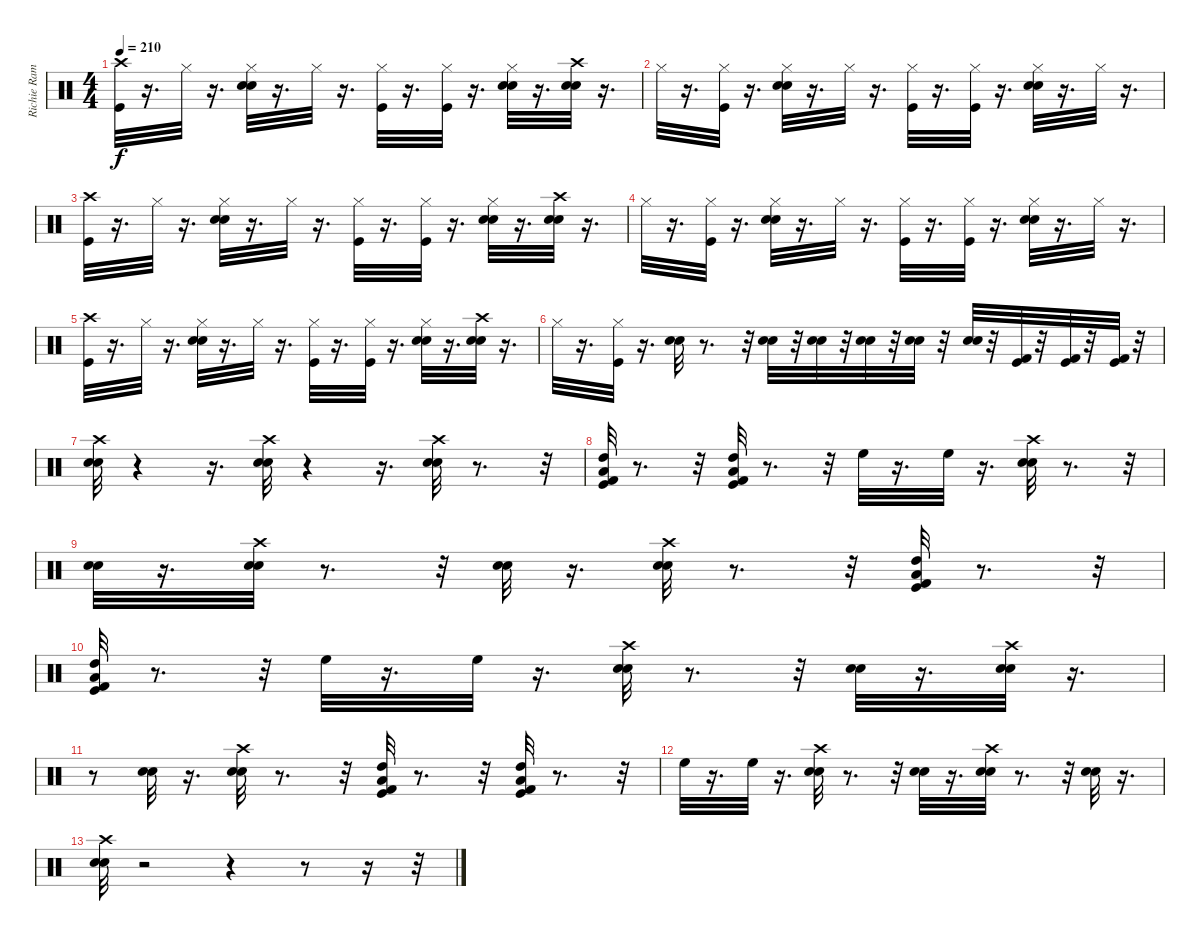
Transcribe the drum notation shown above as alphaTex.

\track ("Richie Ramone" "Richie Ram") {instrument percussion}
\staff {score}
\articulation defaults
\ts (4 4)
\tempo 210
\clef neutral
\ks c
("Crash high (hit)" "Kick (hit)").32{dy f} r.16{d} "Hi-Hat (closed)".32 r.16{d} ("Hand Clap (hit)" "Hi-Hat (closed)" "Electric Snare (hit)").32 r.16{d} "Hi-Hat (closed)".32 r.16{d} ("Hi-Hat (closed)" "Kick (hit)").32 r.16{d} ("Hi-Hat (closed)" "Kick (hit)").32 r.16{d} ("Hand Clap (hit)" "Hi-Hat (closed)" "Electric Snare (hit)").32 r.16{d} ("Hand Clap (hit)" "Crash high (hit)" "Electric Snare (hit)").32 r.16{d} |
"Hi-Hat (closed)".32 r.16{d} ("Hi-Hat (closed)" "Kick (hit)").32 r.16{d} ("Hand Clap (hit)" "Hi-Hat (closed)" "Electric Snare (hit)").32 r.16{d} "Hi-Hat (closed)".32 r.16{d} ("Hi-Hat (closed)" "Kick (hit)").32 r.16{d} ("Hi-Hat (closed)" "Kick (hit)").32 r.16{d} ("Hand Clap (hit)" "Hi-Hat (closed)" "Electric Snare (hit)").32 r.16{d} "Hi-Hat (closed)".32 r.16{d} |
("Crash high (hit)" "Kick (hit)").32 r.16{d} "Hi-Hat (closed)".32 r.16{d} ("Hand Clap (hit)" "Hi-Hat (closed)" "Electric Snare (hit)").32 r.16{d} "Hi-Hat (closed)".32 r.16{d} ("Hi-Hat (closed)" "Kick (hit)").32 r.16{d} ("Hi-Hat (closed)" "Kick (hit)").32 r.16{d} ("Hand Clap (hit)" "Hi-Hat (closed)" "Electric Snare (hit)").32 r.16{d} ("Hand Clap (hit)" "Crash high (hit)" "Electric Snare (hit)").32 r.16{d} |
"Hi-Hat (closed)".32 r.16{d} ("Hi-Hat (closed)" "Kick (hit)").32 r.16{d} ("Hand Clap (hit)" "Hi-Hat (closed)" "Electric Snare (hit)").32 r.16{d} "Hi-Hat (closed)".32 r.16{d} ("Hi-Hat (closed)" "Kick (hit)").32 r.16{d} ("Hi-Hat (closed)" "Kick (hit)").32 r.16{d} ("Hand Clap (hit)" "Hi-Hat (closed)" "Electric Snare (hit)").32 r.16{d} "Hi-Hat (closed)".32 r.16{d} |
("Crash high (hit)" "Kick (hit)").32 r.16{d} "Hi-Hat (closed)".32 r.16{d} ("Hand Clap (hit)" "Hi-Hat (closed)" "Electric Snare (hit)").32 r.16{d} "Hi-Hat (closed)".32 r.16{d} ("Hi-Hat (closed)" "Kick (hit)").32 r.16{d} ("Hi-Hat (closed)" "Kick (hit)").32 r.16{d} ("Hand Clap (hit)" "Hi-Hat (closed)" "Electric Snare (hit)").32 r.16{d} ("Hand Clap (hit)" "Crash high (hit)" "Electric Snare (hit)").32 r.16{d} |
"Hi-Hat (closed)".32 r.16{d} ("Hi-Hat (closed)" "Kick (hit)").32 r.16{d} ("Electric Snare (hit)" "Hand Clap (hit)").32 r.8{d} r.32 ("Hand Clap (hit)" "Electric Snare (hit)").32 r.32 ("Hand Clap (hit)" "Electric Snare (hit)").32 r.32 ("Electric Snare (hit)" "Hand Clap (hit)").32 r.32 ("Electric Snare (hit)" "Hand Clap (hit)").32 r.32 ("Electric Snare (hit)" "Hand Clap (hit)").32 r.32 ("Kick (hit) 2" "Kick (hit)").32 r.32 ("Kick (hit) 2" "Kick (hit)").32 r.32 ("Kick (hit) 2" "Kick (hit)").32 r.32 |
("Crash high (hit)" "Hand Clap (hit)" "Electric Snare (hit)").32 r.4 r.16{d} ("Hand Clap (hit)" "Electric Snare (hit)" "Crash high (hit)").32 r.4 r.16{d} ("Hand Clap (hit)" "Electric Snare (hit)" "Crash high (hit)").32 r.8{d} r.32 |
("High Tom (hit)" "Kick (hit) 2" "Kick (hit)" "Low Tom (hit)").32 r.8{d} r.32 ("High Tom (hit)" "Kick (hit) 2" "Kick (hit)" "Low Tom (hit)").32 r.8{d} r.32 "High Floor Tom (hit)".32 r.16{d} "High Floor Tom (hit)".32 r.16{d} ("Hand Clap (hit)" "Electric Snare (hit)" "Crash high (hit)").32 r.8{d} r.32 |
("Hand Clap (hit)" "Electric Snare (hit)").32 r.16{d} ("Hand Clap (hit)" "Electric Snare (hit)" "Crash high (hit)").32 r.8{d} r.32 ("Electric Snare (hit)" "Hand Clap (hit)").32 r.16{d} ("Crash high (hit)" "Electric Snare (hit)" "Hand Clap (hit)").32 r.8{d} r.32 ("High Tom (hit)" "Kick (hit) 2" "Kick (hit)" "Low Tom (hit)").32 r.8{d} r.32 |
("High Tom (hit)" "Kick (hit) 2" "Kick (hit)" "Low Tom (hit)").32 r.8{d} r.32 "High Floor Tom (hit)".32 r.16{d} "High Floor Tom (hit)".32 r.16{d} ("Hand Clap (hit)" "Electric Snare (hit)" "Crash high (hit)").32 r.8{d} r.32 ("Hand Clap (hit)" "Electric Snare (hit)").32 r.16{d} ("Hand Clap (hit)" "Electric Snare (hit)" "Crash high (hit)").32 r.16{d} |
r.8 ("Electric Snare (hit)" "Hand Clap (hit)").32 r.16{d} ("Crash high (hit)" "Electric Snare (hit)" "Hand Clap (hit)").32 r.8{d} r.32 ("High Tom (hit)" "Kick (hit) 2" "Kick (hit)" "Low Tom (hit)").32 r.8{d} r.32 ("High Tom (hit)" "Kick (hit) 2" "Kick (hit)" "Low Tom (hit)").32 r.8{d} r.32 |
"High Floor Tom (hit)".32 r.16{d} "High Floor Tom (hit)".32 r.16{d} ("Hand Clap (hit)" "Electric Snare (hit)" "Crash high (hit)").32 r.8{d} r.32 ("Hand Clap (hit)" "Electric Snare (hit)").32 r.16{d} ("Hand Clap (hit)" "Electric Snare (hit)" "Crash high (hit)").32 r.8{d} r.32 ("Electric Snare (hit)" "Hand Clap (hit)").32 r.16{d} |
("Crash high (hit)" "Electric Snare (hit)" "Hand Clap (hit)").32 r.2 r.4 r.8 r.16 r.32
